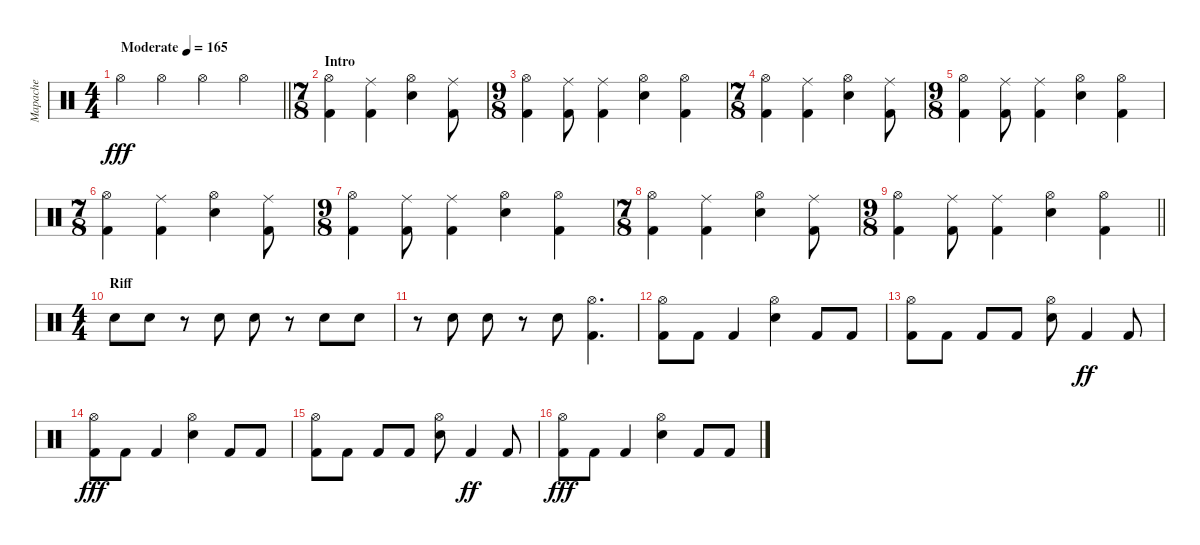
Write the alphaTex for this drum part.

\track ("Mapache" "Mapache") {instrument percussion}
\staff
\articulation defaults
\ts (4 4)
\tempo (165 "Moderate")
\clef neutral
\barLineRight lightlight
\ks c "Hi-Hat (open)".4{dy fff} "Hi-Hat (open)".4 "Hi-Hat (open)".4 "Hi-Hat (open)".4
|
\ts (7 8)
\section ("" "Intro")
("Hi-Hat (open)" "Kick (hit) 2").4 ("Ride (middle)" "Kick (hit) 2").4 ("Hi-Hat (open)" "Electric Snare (hit)").4 ("Ride (middle)" "Kick (hit) 2").8 |
\ts (9 8)
("Hi-Hat (open)" "Kick (hit) 2").4 ("Ride (middle)" "Kick (hit) 2").8 ("Ride (middle)" "Kick (hit) 2").4 ("Hi-Hat (open)" "Electric Snare (hit)").4 ("Hi-Hat (open)" "Kick (hit) 2").4 |
\ts (7 8)
("Hi-Hat (open)" "Kick (hit) 2").4 ("Ride (middle)" "Kick (hit) 2").4 ("Hi-Hat (open)" "Electric Snare (hit)").4 ("Ride (middle)" "Kick (hit) 2").8 |
\ts (9 8)
("Hi-Hat (open)" "Kick (hit) 2").4 ("Ride (middle)" "Kick (hit) 2").8 ("Ride (middle)" "Kick (hit) 2").4 ("Hi-Hat (open)" "Electric Snare (hit)").4 ("Hi-Hat (open)" "Kick (hit) 2").4 |
\ts (7 8)
("Hi-Hat (open)" "Kick (hit) 2").4 ("Ride (middle)" "Kick (hit) 2").4 ("Hi-Hat (open)" "Electric Snare (hit)").4 ("Ride (middle)" "Kick (hit) 2").8 |
\ts (9 8)
("Hi-Hat (open)" "Kick (hit) 2").4 ("Ride (middle)" "Kick (hit) 2").8 ("Ride (middle)" "Kick (hit) 2").4 ("Hi-Hat (open)" "Electric Snare (hit)").4 ("Hi-Hat (open)" "Kick (hit) 2").4 |
\ts (7 8)
("Hi-Hat (open)" "Kick (hit) 2").4 ("Ride (middle)" "Kick (hit) 2").4 ("Hi-Hat (open)" "Electric Snare (hit)").4 ("Ride (middle)" "Kick (hit) 2").8 |
\ts (9 8)
\barLineRight lightlight
("Hi-Hat (open)" "Kick (hit) 2").4 ("Ride (middle)" "Kick (hit) 2").8 ("Ride (middle)" "Kick (hit) 2").4 ("Hi-Hat (open)" "Electric Snare (hit)").4 ("Hi-Hat (open)" "Kick (hit) 2").4 |
\ts (4 4)
\section ("" "Riff")
"Electric Snare (hit)".8 "Electric Snare (hit)".8 r.8 "Electric Snare (hit)".8 "Electric Snare (hit)".8 r.8 "Electric Snare (hit)".8 "Electric Snare (hit)".8 |
r.8 "Electric Snare (hit)".8 "Electric Snare (hit)".8 r.8 "Electric Snare (hit)".8 ("Hi-Hat (open)" "Kick (hit) 2").4{d} |
("Hi-Hat (open)" "Kick (hit) 2").8 "Kick (hit) 2".8 "Kick (hit) 2".4 ("Hi-Hat (open)" "Electric Snare (hit)").4 "Kick (hit) 2".8 "Kick (hit) 2".8 |
("Hi-Hat (open)" "Kick (hit) 2").8 "Kick (hit) 2".8 "Kick (hit) 2".8 "Kick (hit) 2".8 ("Hi-Hat (open)" "Electric Snare (hit)").8 "Kick (hit) 2".4{dy ff} "Kick (hit) 2".8 |
("Hi-Hat (open)" "Kick (hit) 2").8{dy fff} "Kick (hit) 2".8 "Kick (hit) 2".4 ("Hi-Hat (open)" "Electric Snare (hit)").4 "Kick (hit) 2".8 "Kick (hit) 2".8 |
("Hi-Hat (open)" "Kick (hit) 2").8 "Kick (hit) 2".8 "Kick (hit) 2".8 "Kick (hit) 2".8 ("Hi-Hat (open)" "Electric Snare (hit)").8 "Kick (hit) 2".4{dy ff} "Kick (hit) 2".8 |
("Hi-Hat (open)" "Kick (hit) 2").8{dy fff} "Kick (hit) 2".8 "Kick (hit) 2".4 ("Hi-Hat (open)" "Electric Snare (hit)").4 "Kick (hit) 2".8 "Kick (hit) 2".8
